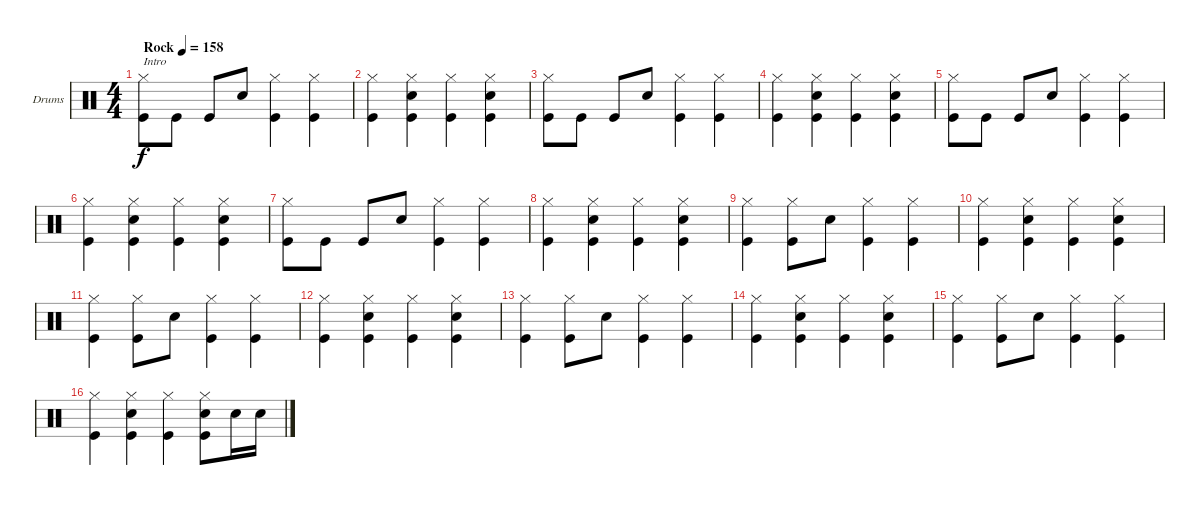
\bracketExtendMode groupsimilarinstruments
\firstSystemTrackNameOrientation horizontal
\otherSystemsTrackNameOrientation horizontal
\track ("Drumkit" "Drums") {instrument percussion}
\staff {score}
\articulation defaults
\ts (4 4)
\beaming (8 2 2 2 2)
\tempo (158 "Rock")
\clef neutral
\ks c
("Hi-Hat (closed)" "Kick (hit)").8{txt "Intro" dy f} "Kick (hit)".8 "Kick (hit)".8 "Snare (hit) 2".8 ("Hi-Hat (closed)" "Kick (hit)").4 ("Hi-Hat (closed)" "Kick (hit)").4 |
("Hi-Hat (closed)" "Kick (hit)").4 ("Hi-Hat (closed)" "Snare (hit) 2" "Kick (hit)").4 ("Hi-Hat (closed)" "Kick (hit)").4 ("Hi-Hat (closed)" "Snare (hit) 2" "Kick (hit)").4 |
("Hi-Hat (closed)" "Kick (hit)").8 "Kick (hit)".8 "Kick (hit)".8 "Snare (hit) 2".8 ("Hi-Hat (closed)" "Kick (hit)").4 ("Hi-Hat (closed)" "Kick (hit)").4 |
("Hi-Hat (closed)" "Kick (hit)").4 ("Hi-Hat (closed)" "Snare (hit) 2" "Kick (hit)").4 ("Hi-Hat (closed)" "Kick (hit)").4 ("Hi-Hat (closed)" "Snare (hit) 2" "Kick (hit)").4 |
("Hi-Hat (closed)" "Kick (hit)").8 "Kick (hit)".8 "Kick (hit)".8 "Snare (hit) 2".8 ("Hi-Hat (closed)" "Kick (hit)").4 ("Hi-Hat (closed)" "Kick (hit)").4 |
("Hi-Hat (closed)" "Kick (hit)").4 ("Hi-Hat (closed)" "Snare (hit) 2" "Kick (hit)").4 ("Hi-Hat (closed)" "Kick (hit)").4 ("Hi-Hat (closed)" "Snare (hit) 2" "Kick (hit)").4 |
("Hi-Hat (closed)" "Kick (hit)").8 "Kick (hit)".8 "Kick (hit)".8 "Snare (hit) 2".8 ("Hi-Hat (closed)" "Kick (hit)").4 ("Hi-Hat (closed)" "Kick (hit)").4 |
("Hi-Hat (closed)" "Kick (hit)").4 ("Hi-Hat (closed)" "Snare (hit) 2" "Kick (hit)").4 ("Hi-Hat (closed)" "Kick (hit)").4 ("Hi-Hat (closed)" "Snare (hit) 2" "Kick (hit)").4 |
("Hi-Hat (closed)" "Kick (hit)").4 ("Hi-Hat (closed)" "Kick (hit)").8 "Snare (hit) 2".8 ("Hi-Hat (closed)" "Kick (hit)").4 ("Hi-Hat (closed)" "Kick (hit)").4 |
("Hi-Hat (closed)" "Kick (hit)").4 ("Hi-Hat (closed)" "Snare (hit) 2" "Kick (hit)").4 ("Hi-Hat (closed)" "Kick (hit)").4 ("Hi-Hat (closed)" "Snare (hit) 2" "Kick (hit)").4 |
("Hi-Hat (closed)" "Kick (hit)").4 ("Hi-Hat (closed)" "Kick (hit)").8 "Snare (hit) 2".8 ("Hi-Hat (closed)" "Kick (hit)").4 ("Hi-Hat (closed)" "Kick (hit)").4 |
("Hi-Hat (closed)" "Kick (hit)").4 ("Hi-Hat (closed)" "Snare (hit) 2" "Kick (hit)").4 ("Hi-Hat (closed)" "Kick (hit)").4 ("Hi-Hat (closed)" "Snare (hit) 2" "Kick (hit)").4 |
("Hi-Hat (closed)" "Kick (hit)").4 ("Hi-Hat (closed)" "Kick (hit)").8 "Snare (hit) 2".8 ("Hi-Hat (closed)" "Kick (hit)").4 ("Hi-Hat (closed)" "Kick (hit)").4 |
("Hi-Hat (closed)" "Kick (hit)").4 ("Hi-Hat (closed)" "Snare (hit) 2" "Kick (hit)").4 ("Hi-Hat (closed)" "Kick (hit)").4 ("Hi-Hat (closed)" "Snare (hit) 2" "Kick (hit)").4 |
("Hi-Hat (closed)" "Kick (hit)").4 ("Hi-Hat (closed)" "Kick (hit)").8 "Snare (hit) 2".8 ("Hi-Hat (closed)" "Kick (hit)").4 ("Hi-Hat (closed)" "Kick (hit)").4 |
("Hi-Hat (closed)" "Kick (hit)").4 ("Hi-Hat (closed)" "Snare (hit) 2" "Kick (hit)").4 ("Hi-Hat (closed)" "Kick (hit)").4 ("Hi-Hat (closed)" "Snare (hit) 2" "Kick (hit)").8 "Snare (hit) 2".16 "Snare (hit) 2".16
